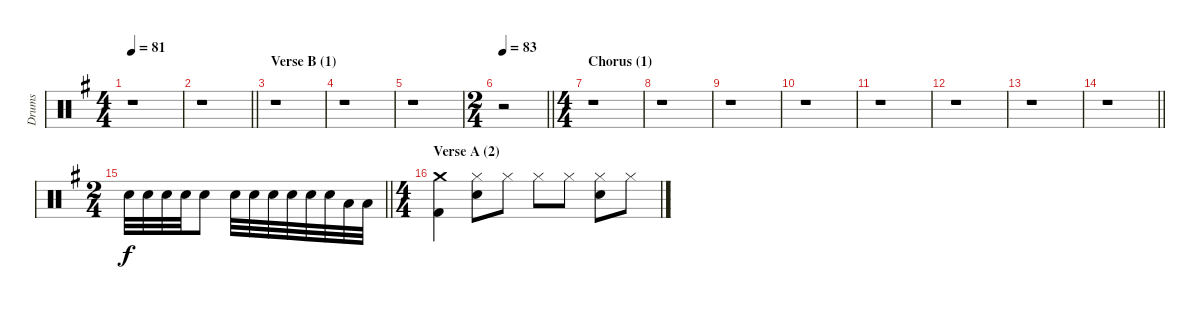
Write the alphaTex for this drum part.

\track ("Drums" "Drums") {instrument percussion}
\staff {score}
\articulation defaults
\ts (4 4)
\tempo 81
\clef neutral
\ks eminor
r.1{dy f} |
\barLineRight lightlight
r.1 |
\section ("" "Verse B (1)")
r.1 |
r.1 |
r.1 |
\ts (2 4)
\tempo 83
\barLineRight lightlight
r.2 |
\ts (4 4)
\section ("" "Chorus (1)")
r.1 |
r.1 |
r.1 |
r.1 |
r.1 |
r.1 |
r.1 |
\barLineRight lightlight
r.1 |
\ts (2 4)
\barLineRight lightlight "Electric Snare (hit)".32 "Electric Snare (hit)".32 "Electric Snare (hit)".32 "Electric Snare (hit)".32 "Electric Snare (hit)".8 "Electric Snare (hit)".32 "Electric Snare (hit)".32 "Electric Snare (hit)".32 "Electric Snare (hit)".32 "Electric Snare (hit)".32 "Electric Snare (hit)".32 "Low Tom (hit)".32 "Low Tom (hit)".32
|
\ts (4 4)
\section ("" "Verse A (2)")
("Crash medium (hit)" "Kick (hit) 2").4 ("Hi-Hat (closed)" "Electric Snare (hit)").8 "Hi-Hat (closed)".8 "Hi-Hat (closed)".8 "Hi-Hat (closed)".8 ("Hi-Hat (closed)" "Electric Snare (hit)").8 "Hi-Hat (closed)".8
